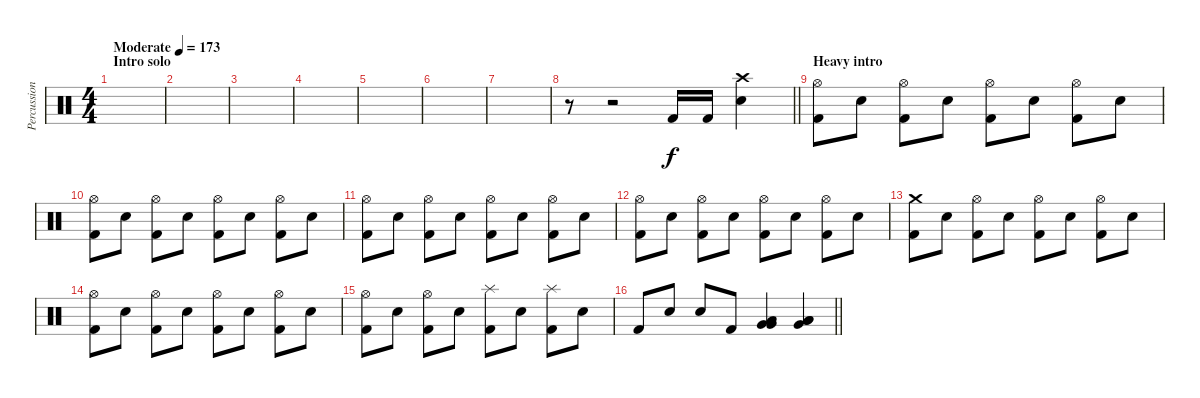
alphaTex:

\track ("Percussion" "Percussion") {instrument percussion}
\staff {score}
\articulation defaults
\ts (4 4)
\section ("" "Intro solo")
\tempo (173 "Moderate")
\clef neutral
\ks c
|
|
|
|
|
|
|
\barLineRight lightlight
r.8 r.2 "Kick (hit) 2".16 "Kick (hit) 2".16 ("Crash high (hit)" "Electric Snare (hit)").4 |
\section ("" "Heavy intro")
("Hi-Hat (open)" "Kick (hit) 2").8 "Electric Snare (hit)".8 ("Hi-Hat (open)" "Kick (hit) 2").8 "Electric Snare (hit)".8 ("Hi-Hat (open)" "Kick (hit) 2").8 "Electric Snare (hit)".8 ("Hi-Hat (open)" "Kick (hit) 2").8 "Electric Snare (hit)".8 |
("Hi-Hat (open)" "Kick (hit) 2").8 "Electric Snare (hit)".8 ("Hi-Hat (open)" "Kick (hit) 2").8 "Electric Snare (hit)".8 ("Hi-Hat (open)" "Kick (hit) 2").8 "Electric Snare (hit)".8 ("Hi-Hat (open)" "Kick (hit) 2").8 "Electric Snare (hit)".8 |
("Hi-Hat (open)" "Kick (hit) 2").8 "Electric Snare (hit)".8 ("Hi-Hat (open)" "Kick (hit) 2").8 "Electric Snare (hit)".8 ("Hi-Hat (open)" "Kick (hit) 2").8 "Electric Snare (hit)".8 ("Hi-Hat (open)" "Kick (hit) 2").8 "Electric Snare (hit)".8 |
("Hi-Hat (open)" "Kick (hit) 2").8 "Electric Snare (hit)".8 ("Hi-Hat (open)" "Kick (hit) 2").8 "Electric Snare (hit)".8 ("Hi-Hat (open)" "Kick (hit) 2").8 "Electric Snare (hit)".8 ("Hi-Hat (open)" "Kick (hit) 2").8 "Electric Snare (hit)".8 |
("Crash medium (hit)" "Kick (hit) 2").8 "Electric Snare (hit)".8 ("Hi-Hat (open)" "Kick (hit) 2").8 "Electric Snare (hit)".8 ("Hi-Hat (open)" "Kick (hit) 2").8 "Electric Snare (hit)".8 ("Hi-Hat (open)" "Kick (hit) 2").8 "Electric Snare (hit)".8 |
("Hi-Hat (open)" "Kick (hit) 2").8 "Electric Snare (hit)".8 ("Hi-Hat (open)" "Kick (hit) 2").8 "Electric Snare (hit)".8 ("Hi-Hat (open)" "Kick (hit) 2").8 "Electric Snare (hit)".8 ("Hi-Hat (open)" "Kick (hit) 2").8 "Electric Snare (hit)".8 |
("Hi-Hat (open)" "Kick (hit) 2").8 "Electric Snare (hit)".8 ("Hi-Hat (open)" "Kick (hit) 2").8 "Electric Snare (hit)".8 ("Splash (hit)" "Kick (hit) 2").8 "Electric Snare (hit)".8 ("Splash (hit)" "Kick (hit) 2").8 "Electric Snare (hit)".8 |
\barLineRight lightlight "Kick (hit) 2".8 "Electric Snare (hit)".8 "Electric Snare (hit)".8 "Kick (hit) 2".8
("Low Tom (hit)" "Very Low Tom (hit)" "Very Low Tom (hit)").4 ("Very Low Tom (hit)" "Low Floor Tom (hit)" "Low Floor Tom (hit)").4
